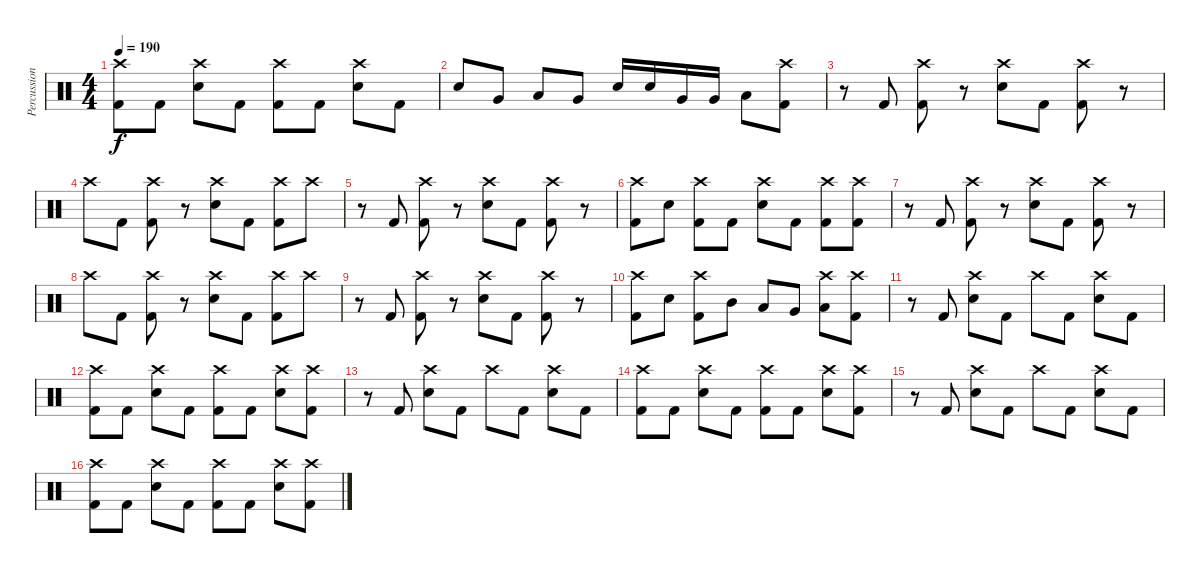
\track ("Percussions" "Percussion") {instrument percussion}
\staff {score}
\articulation defaults
\ts (4 4)
\tempo 190
\clef neutral
\ks c
("Crash high (hit)" "Kick (hit) 2").8{dy f} "Kick (hit) 2".8 ("Crash high (hit)" "Electric Snare (hit)").8 "Kick (hit) 2".8 ("Crash high (hit)" "Kick (hit) 2").8 "Kick (hit) 2".8 ("Crash high (hit)" "Electric Snare (hit)").8 "Kick (hit) 2".8 |
"Electric Snare (hit)".8 "Very Low Tom (hit)".8 "Low Floor Tom (hit)".8 "Very Low Tom (hit)".8 "Electric Snare (hit)".16 "Electric Snare (hit)".16 "Very Low Tom (hit)".16 "Very Low Tom (hit)".16 "Low Floor Tom (hit)".8 ("Crash high (hit)" "Kick (hit) 2").8 |
r.8 "Kick (hit) 2".8 ("Crash high (hit)" "Kick (hit) 2").8 r.8 ("Crash high (hit)" "Electric Snare (hit)").8 "Kick (hit) 2".8 ("Crash high (hit)" "Kick (hit) 2").8 r.8 |
"Crash high (hit)".8 "Kick (hit) 2".8 ("Crash high (hit)" "Kick (hit) 2").8 r.8 ("Crash high (hit)" "Electric Snare (hit)").8 "Kick (hit) 2".8 ("Crash high (hit)" "Kick (hit) 2").8 "Crash high (hit)".8 |
r.8 "Kick (hit) 2".8 ("Crash high (hit)" "Kick (hit) 2").8 r.8 ("Crash high (hit)" "Electric Snare (hit)").8 "Kick (hit) 2".8 ("Crash high (hit)" "Kick (hit) 2").8 r.8 |
("Crash high (hit)" "Kick (hit) 2").8 "Electric Snare (hit)".8 ("Crash high (hit)" "Kick (hit) 2").8 "Kick (hit) 2".8 ("Crash high (hit)" "Electric Snare (hit)").8 "Kick (hit) 2".8 ("Crash high (hit)" "Kick (hit) 2").8 ("Crash high (hit)" "Kick (hit) 2").8 |
r.8 "Kick (hit) 2".8 ("Crash high (hit)" "Kick (hit) 2").8 r.8 ("Crash high (hit)" "Electric Snare (hit)").8 "Kick (hit) 2".8 ("Crash high (hit)" "Kick (hit) 2").8 r.8 |
"Crash high (hit)".8 "Kick (hit) 2".8 ("Crash high (hit)" "Kick (hit) 2").8 r.8 ("Crash high (hit)" "Electric Snare (hit)").8 "Kick (hit) 2".8 ("Crash high (hit)" "Kick (hit) 2").8 "Crash high (hit)".8 |
r.8 "Kick (hit) 2".8 ("Crash high (hit)" "Kick (hit) 2").8 r.8 ("Crash high (hit)" "Electric Snare (hit)").8 "Kick (hit) 2".8 ("Crash high (hit)" "Kick (hit) 2").8 r.8 |
("Crash high (hit)" "Kick (hit) 2").8 "Electric Snare (hit)".8 ("Crash high (hit)" "Kick (hit) 2").8 "Mid Tom (hit)".8 "Low Tom (hit)".8 "Very Low Tom (hit)".8 ("Crash high (hit)" "Low Floor Tom (hit)").8 ("Crash high (hit)" "Kick (hit) 2").8 |
r.8 "Kick (hit) 2".8 ("Crash high (hit)" "Electric Snare (hit)").8 "Kick (hit) 2".8 "Crash high (hit)".8 "Kick (hit) 2".8 ("Crash high (hit)" "Electric Snare (hit)").8 "Kick (hit) 2".8 |
("Crash high (hit)" "Kick (hit) 2").8 "Kick (hit) 2".8 ("Crash high (hit)" "Electric Snare (hit)").8 "Kick (hit) 2".8 ("Crash high (hit)" "Kick (hit) 2").8 "Kick (hit) 2".8 ("Crash high (hit)" "Electric Snare (hit)").8 ("Crash high (hit)" "Kick (hit) 2").8 |
r.8 "Kick (hit) 2".8 ("Crash high (hit)" "Electric Snare (hit)").8 "Kick (hit) 2".8 "Crash high (hit)".8 "Kick (hit) 2".8 ("Crash high (hit)" "Electric Snare (hit)").8 "Kick (hit) 2".8 |
("Crash high (hit)" "Kick (hit) 2").8 "Kick (hit) 2".8 ("Crash high (hit)" "Electric Snare (hit)").8 "Kick (hit) 2".8 ("Crash high (hit)" "Kick (hit) 2").8 "Kick (hit) 2".8 ("Crash high (hit)" "Electric Snare (hit)").8 ("Crash high (hit)" "Kick (hit) 2").8 |
r.8 "Kick (hit) 2".8 ("Crash high (hit)" "Electric Snare (hit)").8 "Kick (hit) 2".8 "Crash high (hit)".8 "Kick (hit) 2".8 ("Crash high (hit)" "Electric Snare (hit)").8 "Kick (hit) 2".8 |
("Crash high (hit)" "Kick (hit) 2").8 "Kick (hit) 2".8 ("Crash high (hit)" "Electric Snare (hit)").8 "Kick (hit) 2".8 ("Crash high (hit)" "Kick (hit) 2").8 "Kick (hit) 2".8 ("Crash high (hit)" "Electric Snare (hit)").8 ("Crash high (hit)" "Kick (hit) 2").8
